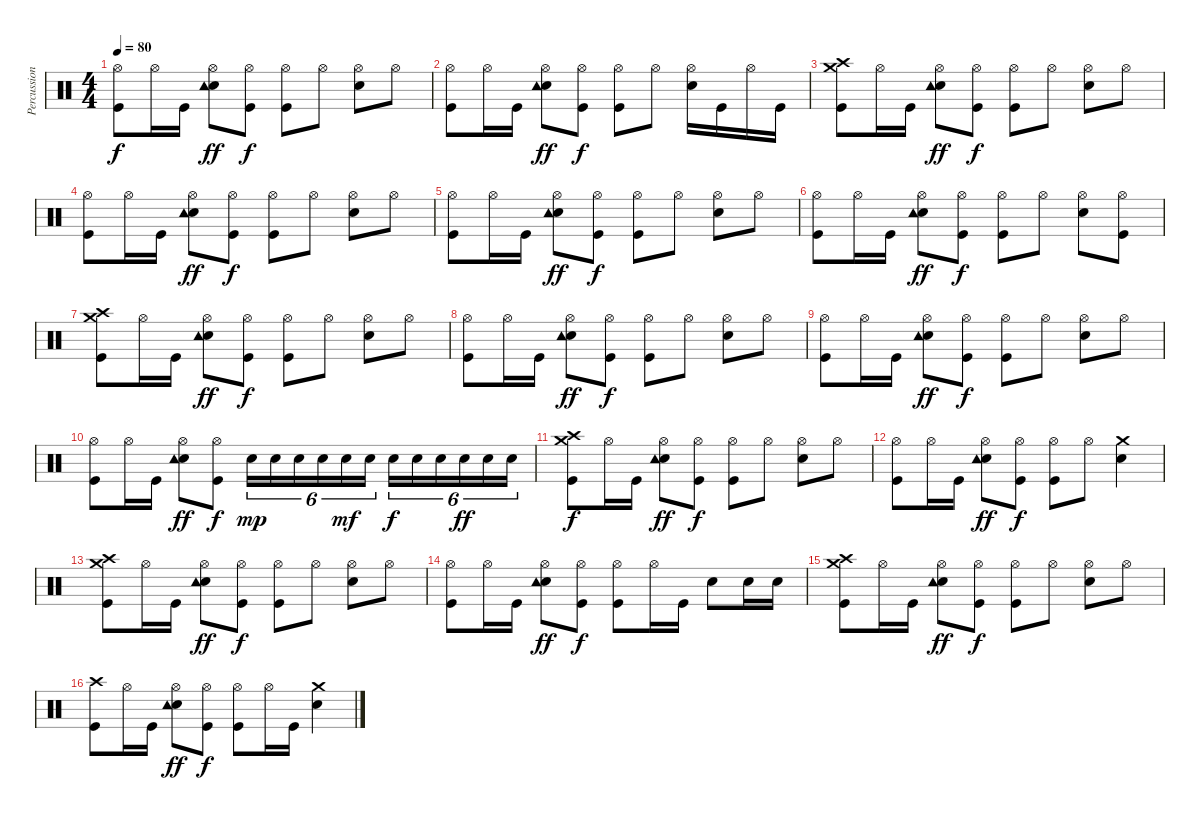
\track ("Percussion" "Percussion") {instrument percussion}
\staff {score}
\articulation defaults
\ts (4 4)
\tempo 80
\clef neutral
\ks c
("Hi-Hat (open)" "Kick (hit)").8{dy f} "Hi-Hat (open)".16 "Kick (hit)".16 ("Electric Snare (hit)" "Hi-Hat (open)" "Tambourine (hit)").8{dy ff} ("Hi-Hat (open)" "Kick (hit)").8{dy f} ("Hi-Hat (open)" "Kick (hit)").8 "Hi-Hat (open)".8 ("Electric Snare (hit)" "Hi-Hat (open)").8 "Hi-Hat (open)".8 |
("Hi-Hat (open)" "Kick (hit)").8 "Hi-Hat (open)".16 "Kick (hit)".16 ("Electric Snare (hit)" "Hi-Hat (open)" "Tambourine (hit)").8{dy ff} ("Hi-Hat (open)" "Kick (hit)").8{dy f} ("Hi-Hat (open)" "Kick (hit)").8 "Hi-Hat (open)".8 ("Electric Snare (hit)" "Hi-Hat (open)").16 "Kick (hit)".16 "Hi-Hat (open)".16 "Kick (hit)".16 |
("Crash high (hit)" "Crash medium (hit)" "Kick (hit)").8 "Hi-Hat (open)".16 "Kick (hit)".16 ("Electric Snare (hit)" "Hi-Hat (open)" "Tambourine (hit)").8{dy ff} ("Hi-Hat (open)" "Kick (hit)").8{dy f} ("Hi-Hat (open)" "Kick (hit)").8 "Hi-Hat (open)".8 ("Electric Snare (hit)" "Hi-Hat (open)").8 "Hi-Hat (open)".8 |
("Hi-Hat (open)" "Kick (hit)").8 "Hi-Hat (open)".16 "Kick (hit)".16 ("Electric Snare (hit)" "Hi-Hat (open)" "Tambourine (hit)").8{dy ff} ("Hi-Hat (open)" "Kick (hit)").8{dy f} ("Hi-Hat (open)" "Kick (hit)").8 "Hi-Hat (open)".8 ("Electric Snare (hit)" "Hi-Hat (open)").8 "Hi-Hat (open)".8 |
("Hi-Hat (open)" "Kick (hit)").8 "Hi-Hat (open)".16 "Kick (hit)".16 ("Electric Snare (hit)" "Hi-Hat (open)" "Tambourine (hit)").8{dy ff} ("Hi-Hat (open)" "Kick (hit)").8{dy f} ("Hi-Hat (open)" "Kick (hit)").8 "Hi-Hat (open)".8 ("Electric Snare (hit)" "Hi-Hat (open)").8 "Hi-Hat (open)".8 |
("Hi-Hat (open)" "Kick (hit)").8 "Hi-Hat (open)".16 "Kick (hit)".16 ("Electric Snare (hit)" "Hi-Hat (open)" "Tambourine (hit)").8{dy ff} ("Hi-Hat (open)" "Kick (hit)").8{dy f} ("Hi-Hat (open)" "Kick (hit)").8 "Hi-Hat (open)".8 ("Electric Snare (hit)" "Hi-Hat (open)").8 ("Hi-Hat (open)" "Kick (hit)").8 |
("Crash high (hit)" "Crash medium (hit)" "Kick (hit)").8 "Hi-Hat (open)".16 "Kick (hit)".16 ("Electric Snare (hit)" "Hi-Hat (open)" "Tambourine (hit)").8{dy ff} ("Hi-Hat (open)" "Kick (hit)").8{dy f} ("Hi-Hat (open)" "Kick (hit)").8 "Hi-Hat (open)".8 ("Electric Snare (hit)" "Hi-Hat (open)").8 "Hi-Hat (open)".8 |
("Hi-Hat (open)" "Kick (hit)").8 "Hi-Hat (open)".16 "Kick (hit)".16 ("Electric Snare (hit)" "Hi-Hat (open)" "Tambourine (hit)").8{dy ff} ("Hi-Hat (open)" "Kick (hit)").8{dy f} ("Hi-Hat (open)" "Kick (hit)").8 "Hi-Hat (open)".8 ("Electric Snare (hit)" "Hi-Hat (open)").8 "Hi-Hat (open)".8 |
("Hi-Hat (open)" "Kick (hit)").8 "Hi-Hat (open)".16 "Kick (hit)".16 ("Electric Snare (hit)" "Hi-Hat (open)" "Tambourine (hit)").8{dy ff} ("Hi-Hat (open)" "Kick (hit)").8{dy f} ("Hi-Hat (open)" "Kick (hit)").8 "Hi-Hat (open)".8 ("Electric Snare (hit)" "Hi-Hat (open)").8 "Hi-Hat (open)".8 |
("Hi-Hat (open)" "Kick (hit)").8 "Hi-Hat (open)".16 "Kick (hit)".16 ("Electric Snare (hit)" "Hi-Hat (open)" "Tambourine (hit)").8{dy ff} ("Hi-Hat (open)" "Kick (hit)").8{dy f} "Electric Snare (hit)".16{tu (6 4) dy mp} "Electric Snare (hit)".16{tu (6 4)} "Electric Snare (hit)".16{tu (6 4)} "Electric Snare (hit)".16{tu (6 4)} "Electric Snare (hit)".16{tu (6 4) dy mf} "Electric Snare (hit)".16{tu (6 4)} "Electric Snare (hit)".16{tu (6 4) dy f} "Electric Snare (hit)".16{tu (6 4)} "Electric Snare (hit)".16{tu (6 4)} "Electric Snare (hit)".16{tu (6 4) dy ff} "Electric Snare (hit)".16{tu (6 4)} "Electric Snare (hit)".16{tu (6 4)} |
("Crash high (hit)" "Crash medium (hit)" "Kick (hit)").8{dy f} "Hi-Hat (open)".16 "Kick (hit)".16 ("Electric Snare (hit)" "Hi-Hat (open)" "Tambourine (hit)").8{dy ff} ("Hi-Hat (open)" "Kick (hit)").8{dy f} ("Hi-Hat (open)" "Kick (hit)").8 "Hi-Hat (open)".8 ("Electric Snare (hit)" "Hi-Hat (open)").8 "Hi-Hat (open)".8 |
("Hi-Hat (open)" "Kick (hit)").8 "Hi-Hat (open)".16 "Kick (hit)".16 ("Electric Snare (hit)" "Hi-Hat (open)" "Tambourine (hit)").8{dy ff} ("Hi-Hat (open)" "Kick (hit)").8{dy f} ("Hi-Hat (open)" "Kick (hit)").8 "Hi-Hat (open)".8 ("Electric Snare (hit)" "Crash medium (hit)").4 |
("Crash high (hit)" "Crash medium (hit)" "Kick (hit)").8 "Hi-Hat (open)".16 "Kick (hit)".16 ("Electric Snare (hit)" "Hi-Hat (open)" "Tambourine (hit)").8{dy ff} ("Hi-Hat (open)" "Kick (hit)").8{dy f} ("Hi-Hat (open)" "Kick (hit)").8 "Hi-Hat (open)".8 ("Electric Snare (hit)" "Hi-Hat (open)").8 "Hi-Hat (open)".8 |
("Hi-Hat (open)" "Kick (hit)").8 "Hi-Hat (open)".16 "Kick (hit)".16 ("Electric Snare (hit)" "Hi-Hat (open)" "Tambourine (hit)").8{dy ff} ("Hi-Hat (open)" "Kick (hit)").8{dy f} ("Hi-Hat (open)" "Kick (hit)").8 "Hi-Hat (open)".16 "Kick (hit)".16 "Electric Snare (hit)".8 "Electric Snare (hit)".16 "Electric Snare (hit)".16 |
("Crash high (hit)" "Crash medium (hit)" "Kick (hit)").8 "Hi-Hat (open)".16 "Kick (hit)".16 ("Electric Snare (hit)" "Hi-Hat (open)" "Tambourine (hit)").8{dy ff} ("Hi-Hat (open)" "Kick (hit)").8{dy f} ("Hi-Hat (open)" "Kick (hit)").8 "Hi-Hat (open)".8 ("Electric Snare (hit)" "Hi-Hat (open)").8 "Hi-Hat (open)".8 |
("Crash high (hit)" "Kick (hit)").8 "Hi-Hat (open)".16 "Kick (hit)".16 ("Electric Snare (hit)" "Hi-Hat (open)" "Tambourine (hit)").8{dy ff} ("Hi-Hat (open)" "Kick (hit)").8{dy f} ("Hi-Hat (open)" "Kick (hit)").8 "Hi-Hat (open)".16 "Kick (hit)".16 ("Electric Snare (hit)" "Crash medium (hit)").4
